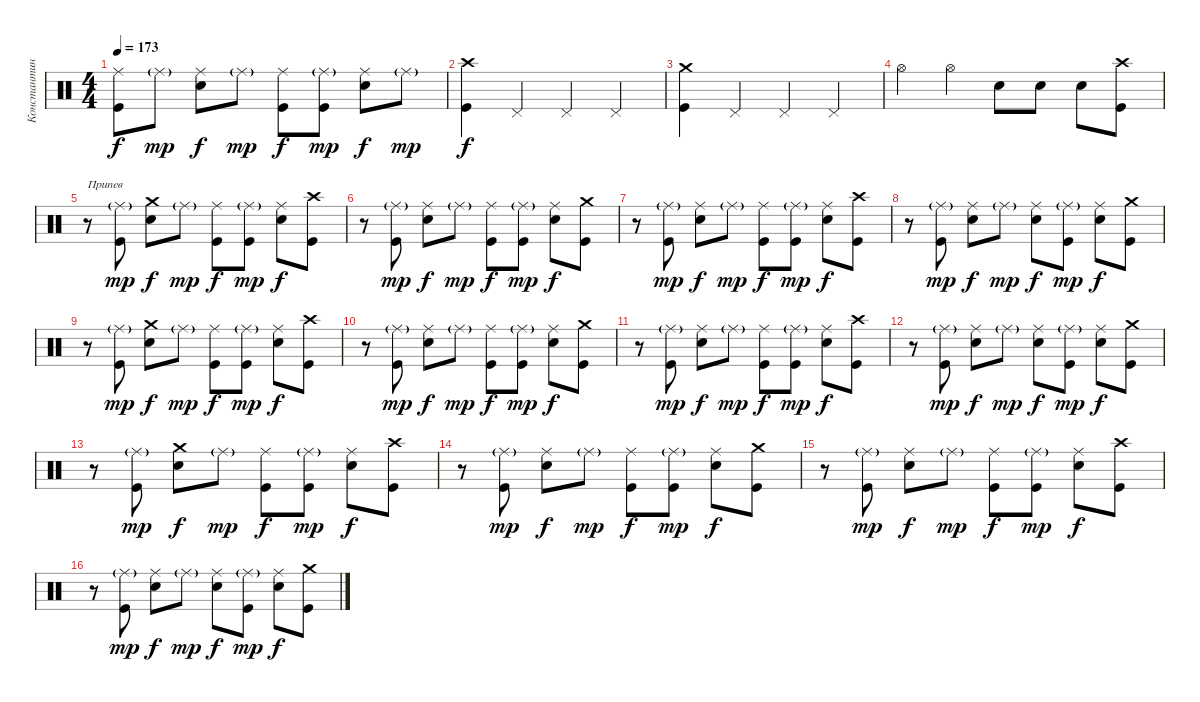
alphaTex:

\track ("Константин Дементьев" "Константин") {instrument percussion}
\staff {score}
\articulation defaults
\ts (4 4)
\tempo 173
\clef neutral
\ks c
("Ride (middle)" "Kick (hit)").8{dy f} "Ride (middle)"{g}.8{dy mp} ("Ride (middle)" "Electric Snare (hit)").8{dy f} "Ride (middle)"{g}.8{dy mp} ("Ride (middle)" "Kick (hit)").8{dy f} ("Ride (middle)"{g} "Kick (hit)").8{dy mp} ("Ride (middle)" "Electric Snare (hit)").8{dy f} "Ride (middle)"{g}.8{dy mp} |
("Crash high (hit)" "Kick (hit)").4{dy f} "Pedal Hi-Hat (hit)".4 "Pedal Hi-Hat (hit)".4 "Pedal Hi-Hat (hit)".4 |
("Crash medium (hit)" "Kick (hit)").4 "Pedal Hi-Hat (hit)".4 "Pedal Hi-Hat (hit)".4 "Pedal Hi-Hat (hit)".4 |
"Hi-Hat (open)".4 "Hi-Hat (open)".4 "Electric Snare (hit)".8 "Electric Snare (hit)".8 "Electric Snare (hit)".8 ("Crash high (hit)" "Kick (hit)").8 |
r.8{txt "Припев"} ("Ride (middle)"{g} "Kick (hit)").8{dy mp} ("Crash medium (hit)" "Electric Snare (hit)").8{dy f} "Ride (middle)"{g}.8{dy mp} ("Ride (middle)" "Kick (hit)").8{dy f} ("Ride (middle)"{g} "Kick (hit)").8{dy mp} ("Ride (middle)" "Electric Snare (hit)").8{dy f} ("Crash high (hit)" "Kick (hit)").8 |
r.8 ("Ride (middle)"{g} "Kick (hit)").8{dy mp} ("Ride (middle)" "Electric Snare (hit)").8{dy f} "Ride (middle)"{g}.8{dy mp} ("Ride (middle)" "Kick (hit)").8{dy f} ("Ride (middle)"{g} "Kick (hit)").8{dy mp} ("Ride (middle)" "Electric Snare (hit)").8{dy f} ("Crash medium (hit)" "Kick (hit)").8 |
r.8 ("Ride (middle)"{g} "Kick (hit)").8{dy mp} ("Ride (middle)" "Electric Snare (hit)").8{dy f} "Ride (middle)"{g}.8{dy mp} ("Ride (middle)" "Kick (hit)").8{dy f} ("Ride (middle)"{g} "Kick (hit)").8{dy mp} ("Ride (middle)" "Electric Snare (hit)").8{dy f} ("Crash high (hit)" "Kick (hit)").8 |
r.8 ("Ride (middle)"{g} "Kick (hit)").8{dy mp} ("Ride (middle)" "Electric Snare (hit)").8{dy f} "Ride (middle)"{g}.8{dy mp} ("Ride (middle)" "Electric Snare (hit)").8{dy f} ("Ride (middle)"{g} "Kick (hit)").8{dy mp} ("Ride (middle)" "Electric Snare (hit)").8{dy f} ("Crash medium (hit)" "Kick (hit)").8 |
r.8 ("Ride (middle)"{g} "Kick (hit)").8{dy mp} ("Crash medium (hit)" "Electric Snare (hit)").8{dy f} "Ride (middle)"{g}.8{dy mp} ("Ride (middle)" "Kick (hit)").8{dy f} ("Ride (middle)"{g} "Kick (hit)").8{dy mp} ("Ride (middle)" "Electric Snare (hit)").8{dy f} ("Crash high (hit)" "Kick (hit)").8 |
r.8 ("Ride (middle)"{g} "Kick (hit)").8{dy mp} ("Ride (middle)" "Electric Snare (hit)").8{dy f} "Ride (middle)"{g}.8{dy mp} ("Ride (middle)" "Kick (hit)").8{dy f} ("Ride (middle)"{g} "Kick (hit)").8{dy mp} ("Ride (middle)" "Electric Snare (hit)").8{dy f} ("Crash medium (hit)" "Kick (hit)").8 |
r.8 ("Ride (middle)"{g} "Kick (hit)").8{dy mp} ("Ride (middle)" "Electric Snare (hit)").8{dy f} "Ride (middle)"{g}.8{dy mp} ("Ride (middle)" "Kick (hit)").8{dy f} ("Ride (middle)"{g} "Kick (hit)").8{dy mp} ("Ride (middle)" "Electric Snare (hit)").8{dy f} ("Crash high (hit)" "Kick (hit)").8 |
r.8 ("Ride (middle)"{g} "Kick (hit)").8{dy mp} ("Ride (middle)" "Electric Snare (hit)").8{dy f} "Ride (middle)"{g}.8{dy mp} ("Ride (middle)" "Electric Snare (hit)").8{dy f} ("Ride (middle)"{g} "Kick (hit)").8{dy mp} ("Ride (middle)" "Electric Snare (hit)").8{dy f} ("Crash medium (hit)" "Kick (hit)").8 |
r.8 ("Ride (middle)"{g} "Kick (hit)").8{dy mp} ("Crash medium (hit)" "Electric Snare (hit)").8{dy f} "Ride (middle)"{g}.8{dy mp} ("Ride (middle)" "Kick (hit)").8{dy f} ("Ride (middle)"{g} "Kick (hit)").8{dy mp} ("Ride (middle)" "Electric Snare (hit)").8{dy f} ("Crash high (hit)" "Kick (hit)").8 |
r.8 ("Ride (middle)"{g} "Kick (hit)").8{dy mp} ("Ride (middle)" "Electric Snare (hit)").8{dy f} "Ride (middle)"{g}.8{dy mp} ("Ride (middle)" "Kick (hit)").8{dy f} ("Ride (middle)"{g} "Kick (hit)").8{dy mp} ("Ride (middle)" "Electric Snare (hit)").8{dy f} ("Crash medium (hit)" "Kick (hit)").8 |
r.8 ("Ride (middle)"{g} "Kick (hit)").8{dy mp} ("Ride (middle)" "Electric Snare (hit)").8{dy f} "Ride (middle)"{g}.8{dy mp} ("Ride (middle)" "Kick (hit)").8{dy f} ("Ride (middle)"{g} "Kick (hit)").8{dy mp} ("Ride (middle)" "Electric Snare (hit)").8{dy f} ("Crash high (hit)" "Kick (hit)").8 |
r.8 ("Ride (middle)"{g} "Kick (hit)").8{dy mp} ("Ride (middle)" "Electric Snare (hit)").8{dy f} "Ride (middle)"{g}.8{dy mp} ("Ride (middle)" "Electric Snare (hit)").8{dy f} ("Ride (middle)"{g} "Kick (hit)").8{dy mp} ("Ride (middle)" "Electric Snare (hit)").8{dy f} ("Crash medium (hit)" "Kick (hit)").8
